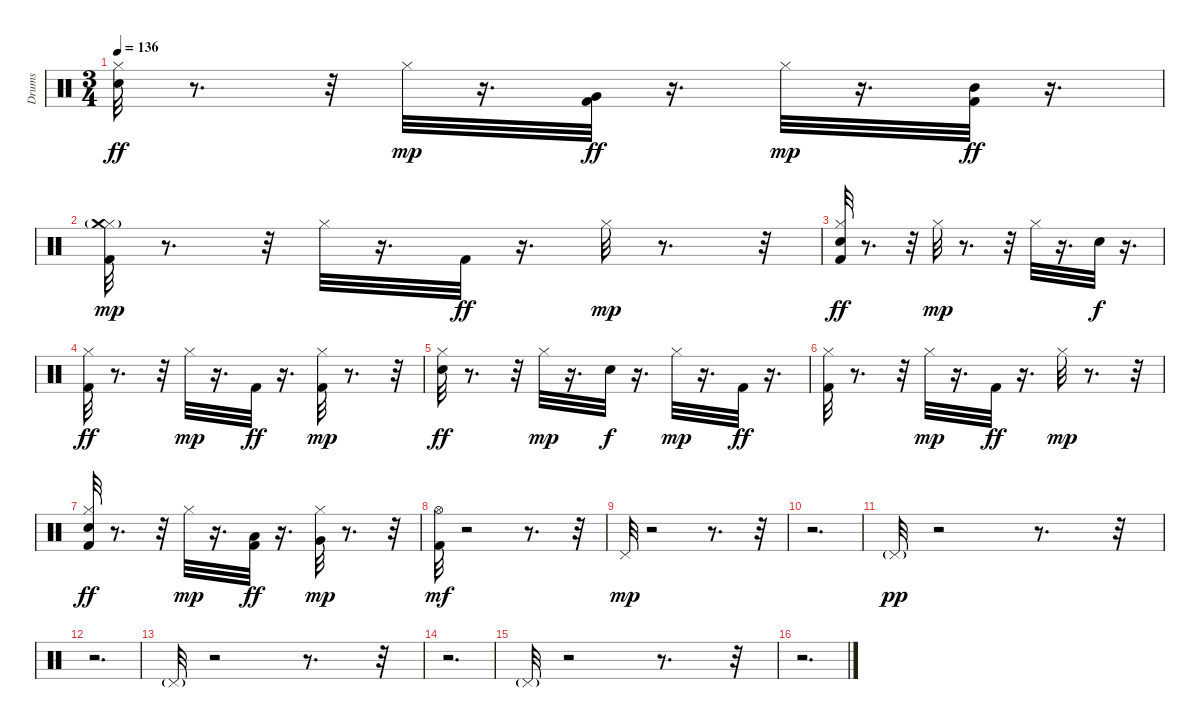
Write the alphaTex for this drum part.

\track ("Drums  " "Drums  ") {instrument percussion}
\staff {score}
\articulation defaults
\ts (3 4)
\tempo 136
\clef neutral
\ks c
("Snare (hit) 2" "Hi-Hat (closed)").32{dy ff} r.8{d} r.32 "Hi-Hat (closed)".32{dy mp} r.16{d} ("Kick (hit) 2" "Very Low Tom (hit)").32{dy ff} r.16{d} "Hi-Hat (closed)".32{dy mp} r.16{d} ("Kick (hit) 2" "Mid Tom (hit)").32{dy ff} r.16{d} |
("Kick (hit) 2" "Hi-Hat (closed)" "Crash medium (hit)"{g}).32{dy mp} r.8{d} r.32 "Hi-Hat (closed)".32 r.16{d} "Kick (hit) 2".32{dy ff} r.16{d} "Hi-Hat (closed)".32{dy mp} r.8{d} r.32 |
("Snare (hit) 2" "Kick (hit) 2" "Hi-Hat (closed)").32{dy ff} r.8{d} r.32 "Hi-Hat (closed)".32{dy mp} r.8{d} r.32 "Hi-Hat (closed)".32 r.16{d} "Snare (hit) 2".32{dy f} r.16{d} |
("Kick (hit) 2" "Hi-Hat (closed)").32{dy ff} r.8{d} r.32 "Hi-Hat (closed)".32{dy mp} r.16{d} "Kick (hit) 2".32{dy ff} r.16{d} ("Kick (hit) 2" "Hi-Hat (closed)").32{dy mp} r.8{d} r.32 |
("Snare (hit) 2" "Hi-Hat (closed)").32{dy ff} r.8{d} r.32 "Hi-Hat (closed)".32{dy mp} r.16{d} "Snare (hit) 2".32{dy f} r.16{d} "Hi-Hat (closed)".32{dy mp} r.16{d} "Kick (hit) 2".32{dy ff} r.16{d} |
("Kick (hit) 2" "Hi-Hat (closed)").32 r.8{d} r.32 "Hi-Hat (closed)".32{dy mp} r.16{d} "Kick (hit) 2".32{dy ff} r.16{d} "Hi-Hat (closed)".32{dy mp} r.8{d} r.32 |
("Snare (hit) 2" "Kick (hit) 2" "Hi-Hat (closed)").32{dy ff} r.8{d} r.32 "Hi-Hat (closed)".32{dy mp} r.16{d} ("Kick (hit) 2" "Low Tom (hit)").32{dy ff} r.16{d} ("Hi-Hat (closed)" "Very Low Tom (hit)").32{dy mp} r.8{d} r.32 |
("Kick (hit) 2" "Hi-Hat (open)").32{dy mf} r.2 r.8{d} r.32 |
"Pedal Hi-Hat (hit)".32{dy mp} r.2 r.8{d} r.32 |
r.2{d} |
"Pedal Hi-Hat (hit)"{g}.32{dy pp} r.2 r.8{d} r.32 |
r.2{d} |
"Pedal Hi-Hat (hit)"{g}.32 r.2 r.8{d} r.32 |
r.2{d} |
"Pedal Hi-Hat (hit)"{g}.32 r.2 r.8{d} r.32 |
r.2{d}
